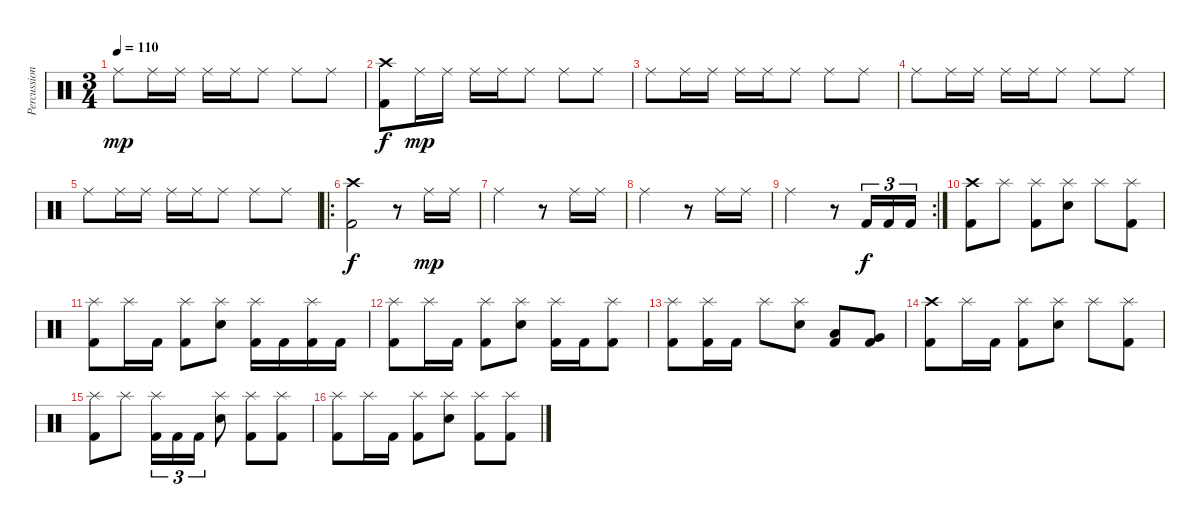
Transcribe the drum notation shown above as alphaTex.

\track ("Percussion" "Percussion") {instrument percussion}
\staff {score}
\articulation defaults
\ts (3 4)
\tempo 110
\clef neutral
\ks c "Ride (middle)".8{dy mp} "Ride (middle)".16 "Ride (middle)".16 "Ride (middle)".16 "Ride (middle)".16 "Ride (middle)".8 "Ride (middle)".8 "Ride (middle)".8
|
("Crash high (hit)" "Kick (hit) 2").8{dy f} "Ride (middle)".16{dy mp} "Ride (middle)".16 "Ride (middle)".16 "Ride (middle)".16 "Ride (middle)".8 "Ride (middle)".8 "Ride (middle)".8 |
"Ride (middle)".8 "Ride (middle)".16 "Ride (middle)".16 "Ride (middle)".16 "Ride (middle)".16 "Ride (middle)".8 "Ride (middle)".8 "Ride (middle)".8 |
"Ride (middle)".8 "Ride (middle)".16 "Ride (middle)".16 "Ride (middle)".16 "Ride (middle)".16 "Ride (middle)".8 "Ride (middle)".8 "Ride (middle)".8 |
"Ride (middle)".8 "Ride (middle)".16 "Ride (middle)".16 "Ride (middle)".16 "Ride (middle)".16 "Ride (middle)".8 "Ride (middle)".8 "Ride (middle)".8 |
\ro
("Crash high (hit)" "Kick (hit) 2").2{dy f} r.8 "Ride (middle)".16{dy mp} "Ride (middle)".16 |
"Ride (middle)".2 r.8 "Ride (middle)".16 "Ride (middle)".16 |
"Ride (middle)".2 r.8 "Ride (middle)".16 "Ride (middle)".16 |
\rc 2 "Ride (middle)".2
r.8 "Kick (hit) 2".16{tu (3 2) dy f} "Kick (hit) 2".16{tu (3 2)} "Kick (hit) 2".16{tu (3 2)} |
("Crash high (hit)" "Kick (hit) 2").8 "Splash (hit)".8 ("Splash (hit)" "Kick (hit) 2").8 ("Splash (hit)" "Electric Snare (hit)").8 "Splash (hit)".8 ("Splash (hit)" "Kick (hit) 2").8 |
("Splash (hit)" "Kick (hit) 2").8 "Splash (hit)".16 "Kick (hit) 2".16 ("Splash (hit)" "Kick (hit) 2").8 ("Splash (hit)" "Electric Snare (hit)").8 ("Splash (hit)" "Kick (hit) 2").16 "Kick (hit) 2".16 ("Splash (hit)" "Kick (hit) 2").16 "Kick (hit) 2".16 |
("Splash (hit)" "Kick (hit) 2").8 "Splash (hit)".16 "Kick (hit) 2".16 ("Splash (hit)" "Kick (hit) 2").8 ("Splash (hit)" "Electric Snare (hit)").8 ("Splash (hit)" "Kick (hit) 2").16 "Kick (hit) 2".16 ("Splash (hit)" "Kick (hit) 2").8 |
("Splash (hit)" "Kick (hit) 2").8 ("Splash (hit)" "Kick (hit) 2").16 "Kick (hit) 2".16 "Splash (hit)".8 ("Splash (hit)" "Electric Snare (hit)").8 ("Low Tom (hit)" "Kick (hit) 2").8 ("Very Low Tom (hit)" "Kick (hit) 2").8 |
("Crash high (hit)" "Kick (hit) 2").8 "Splash (hit)".16 "Kick (hit) 2".16 ("Splash (hit)" "Kick (hit) 2").8 ("Splash (hit)" "Electric Snare (hit)").8 "Splash (hit)".8 ("Splash (hit)" "Kick (hit) 2").8 |
("Splash (hit)" "Kick (hit) 2").8 "Splash (hit)".8 ("Splash (hit)" "Kick (hit) 2").16{tu (3 2)} "Kick (hit) 2".16{tu (3 2)} "Kick (hit) 2".16{tu (3 2)} ("Splash (hit)" "Electric Snare (hit)").8 ("Splash (hit)" "Kick (hit) 2").8 ("Splash (hit)" "Kick (hit) 2").8 |
("Splash (hit)" "Kick (hit) 2").8 "Splash (hit)".16 "Kick (hit) 2".16 ("Splash (hit)" "Kick (hit) 2").8 ("Splash (hit)" "Electric Snare (hit)").8 ("Splash (hit)" "Kick (hit) 2").8 ("Splash (hit)" "Kick (hit) 2").8
